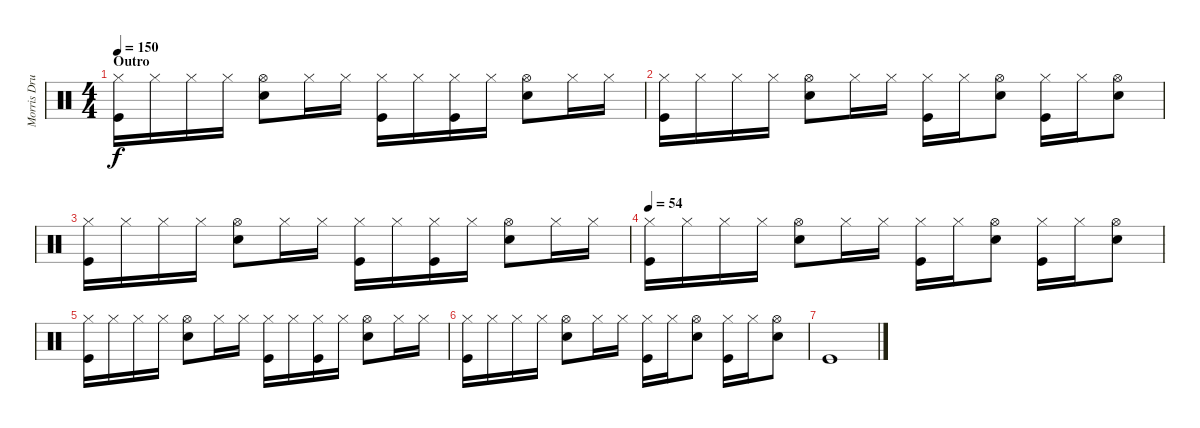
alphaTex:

\track ("Morris Drums" "Morris Dru") {instrument percussion}
\staff {score}
\articulation defaults
\ts (4 4)
\section ("" "Outro")
\tempo 150
\clef neutral
\ks c
("Hi-Hat (closed)" "Kick (hit)").16{dy f} "Hi-Hat (closed)".16 "Hi-Hat (closed)".16 "Hi-Hat (closed)".16 ("Hi-Hat (open)" "Snare (hit) 2").8 "Hi-Hat (closed)".16 "Hi-Hat (closed)".16 ("Hi-Hat (closed)" "Kick (hit)").16 "Hi-Hat (closed)".16 ("Hi-Hat (closed)" "Kick (hit)").16 "Hi-Hat (closed)".16 ("Hi-Hat (open)" "Snare (hit) 2").8 "Hi-Hat (closed)".16 "Hi-Hat (closed)".16 |
("Hi-Hat (closed)" "Kick (hit)").16 "Hi-Hat (closed)".16 "Hi-Hat (closed)".16 "Hi-Hat (closed)".16 ("Hi-Hat (open)" "Snare (hit) 2").8 "Hi-Hat (closed)".16 "Hi-Hat (closed)".16 ("Hi-Hat (closed)" "Kick (hit)").16 "Hi-Hat (closed)".16 ("Hi-Hat (open)" "Snare (hit) 2").8 ("Hi-Hat (closed)" "Kick (hit)").16 "Hi-Hat (closed)".16 ("Hi-Hat (open)" "Snare (hit) 2").8 |
("Hi-Hat (closed)" "Kick (hit)").16 "Hi-Hat (closed)".16 "Hi-Hat (closed)".16 "Hi-Hat (closed)".16 ("Hi-Hat (open)" "Snare (hit) 2").8 "Hi-Hat (closed)".16 "Hi-Hat (closed)".16 ("Hi-Hat (closed)" "Kick (hit)").16 "Hi-Hat (closed)".16 ("Hi-Hat (closed)" "Kick (hit)").16 "Hi-Hat (closed)".16 ("Hi-Hat (open)" "Snare (hit) 2").8 "Hi-Hat (closed)".16 "Hi-Hat (closed)".16 |
\tempo 54
("Hi-Hat (closed)" "Kick (hit)").16 "Hi-Hat (closed)".16 "Hi-Hat (closed)".16 "Hi-Hat (closed)".16 ("Hi-Hat (open)" "Snare (hit) 2").8 "Hi-Hat (closed)".16 "Hi-Hat (closed)".16 ("Hi-Hat (closed)" "Kick (hit)").16 "Hi-Hat (closed)".16 ("Hi-Hat (open)" "Snare (hit) 2").8 ("Hi-Hat (closed)" "Kick (hit)").16 "Hi-Hat (closed)".16 ("Hi-Hat (open)" "Snare (hit) 2").8 |
("Hi-Hat (closed)" "Kick (hit)").16 "Hi-Hat (closed)".16 "Hi-Hat (closed)".16 "Hi-Hat (closed)".16 ("Hi-Hat (open)" "Snare (hit) 2").8 "Hi-Hat (closed)".16 "Hi-Hat (closed)".16 ("Hi-Hat (closed)" "Kick (hit)").16 "Hi-Hat (closed)".16 ("Hi-Hat (closed)" "Kick (hit)").16 "Hi-Hat (closed)".16 ("Hi-Hat (open)" "Snare (hit) 2").8 "Hi-Hat (closed)".16 "Hi-Hat (closed)".16 |
("Hi-Hat (closed)" "Kick (hit)").16 "Hi-Hat (closed)".16 "Hi-Hat (closed)".16 "Hi-Hat (closed)".16 ("Hi-Hat (open)" "Snare (hit) 2").8 "Hi-Hat (closed)".16 "Hi-Hat (closed)".16 ("Hi-Hat (closed)" "Kick (hit)").16 "Hi-Hat (closed)".16 ("Hi-Hat (open)" "Snare (hit) 2").8 ("Hi-Hat (closed)" "Kick (hit)").16 "Hi-Hat (closed)".16 ("Hi-Hat (open)" "Snare (hit) 2").8 |
"Kick (hit)".1
